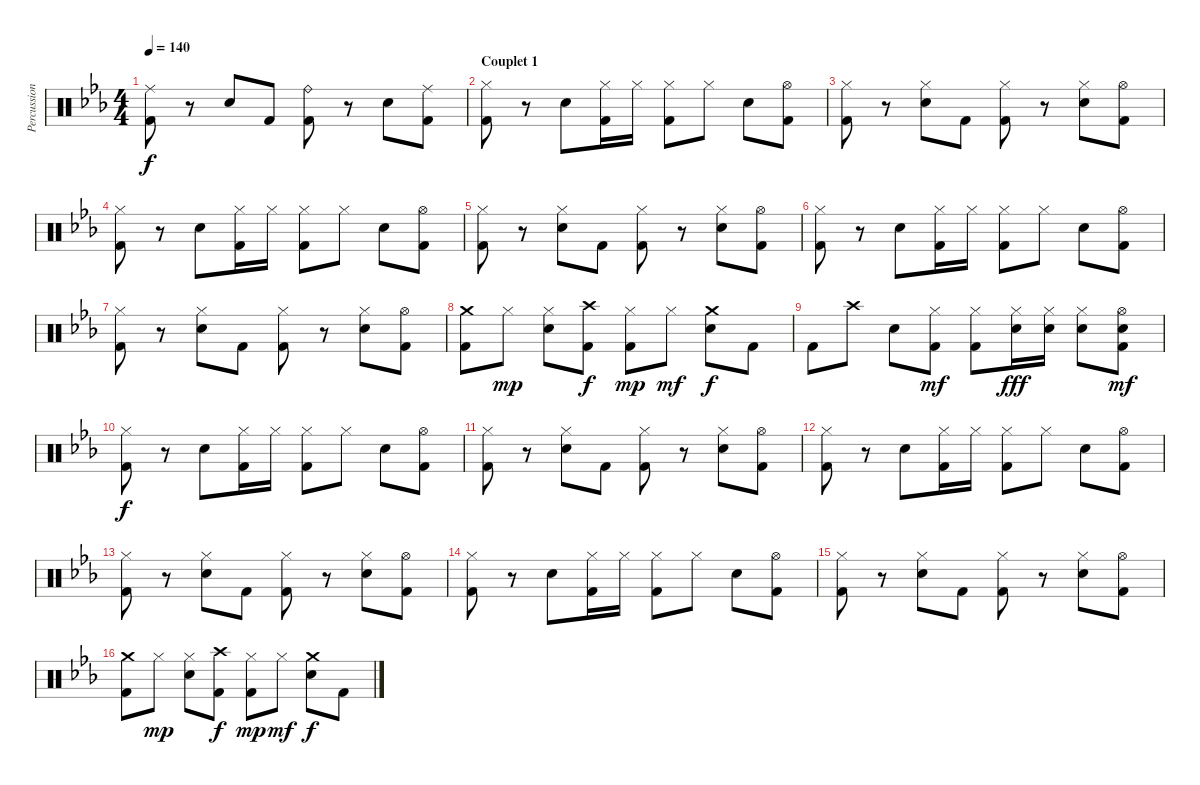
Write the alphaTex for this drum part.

\track ("Percussions" "Percussion") {instrument percussion}
\staff {score}
\articulation defaults
\ts (4 4)
\tempo 140
\clef neutral
\ks eb
("Ride (middle)" "Kick (hit) 2").8{dy f} r.8 "Snare (hit) 2".8 "Kick (hit) 2".8 ("Ride (bell)" "Kick (hit) 2").8 r.8 "Snare (hit) 2".8 ("Ride (middle)" "Kick (hit) 2").8 |
\section ("" "Couplet 1")
("Hi-Hat (closed)" "Kick (hit) 2").8 r.8 "Snare (hit) 2".8 ("Hi-Hat (closed)" "Kick (hit) 2").16 "Hi-Hat (closed)".16 ("Hi-Hat (closed)" "Kick (hit) 2").8 "Hi-Hat (closed)".8 "Snare (hit) 2".8 ("Hi-Hat (open)" "Kick (hit) 2").8 |
("Hi-Hat (closed)" "Kick (hit) 2").8 r.8 ("Hi-Hat (closed)" "Snare (hit) 2").8 "Kick (hit) 2".8 ("Hi-Hat (closed)" "Kick (hit) 2").8 r.8 ("Hi-Hat (closed)" "Snare (hit) 2").8 ("Hi-Hat (open)" "Kick (hit) 2").8 |
("Hi-Hat (closed)" "Kick (hit) 2").8 r.8 "Snare (hit) 2".8 ("Hi-Hat (closed)" "Kick (hit) 2").16 "Hi-Hat (closed)".16 ("Hi-Hat (closed)" "Kick (hit) 2").8 "Hi-Hat (closed)".8 "Snare (hit) 2".8 ("Hi-Hat (open)" "Kick (hit) 2").8 |
("Hi-Hat (closed)" "Kick (hit) 2").8 r.8 ("Hi-Hat (closed)" "Snare (hit) 2").8 "Kick (hit) 2".8 ("Hi-Hat (closed)" "Kick (hit) 2").8 r.8 ("Hi-Hat (closed)" "Snare (hit) 2").8 ("Hi-Hat (open)" "Kick (hit) 2").8 |
("Hi-Hat (closed)" "Kick (hit) 2").8 r.8 "Snare (hit) 2".8 ("Hi-Hat (closed)" "Kick (hit) 2").16 "Hi-Hat (closed)".16 ("Hi-Hat (closed)" "Kick (hit) 2").8 "Hi-Hat (closed)".8 "Snare (hit) 2".8 ("Hi-Hat (open)" "Kick (hit) 2").8 |
("Hi-Hat (closed)" "Kick (hit) 2").8 r.8 ("Hi-Hat (closed)" "Snare (hit) 2").8 "Kick (hit) 2".8 ("Hi-Hat (closed)" "Kick (hit) 2").8 r.8 ("Hi-Hat (closed)" "Snare (hit) 2").8 ("Hi-Hat (open)" "Kick (hit) 2").8 |
("Crash medium (hit)" "Kick (hit) 2").8 "Hi-Hat (closed)".8{dy mp} ("Hi-Hat (closed)" "Snare (hit) 2").8 ("Crash high (hit)" "Kick (hit) 2").8{dy f} ("Hi-Hat (closed)" "Kick (hit) 2").8{dy mp} "Hi-Hat (closed)".8{dy mf} ("Crash medium (hit)" "Snare (hit) 2").8{dy f} "Kick (hit) 2".8 |
"Kick (hit) 2".8 "Crash high (hit)".8 "Snare (hit) 2".8 ("Hi-Hat (closed)" "Kick (hit) 2").8{dy mf} ("Hi-Hat (closed)" "Kick (hit) 2").8 ("Hi-Hat (closed)" "Snare (hit) 2").16{dy fff} ("Hi-Hat (closed)" "Snare (hit) 2").16 ("Hi-Hat (closed)" "Snare (hit) 2").8 ("Hi-Hat (open)" "Snare (hit) 2" "Kick (hit) 2").8{dy mf} |
("Hi-Hat (closed)" "Kick (hit) 2").8{dy f} r.8 "Snare (hit) 2".8 ("Hi-Hat (closed)" "Kick (hit) 2").16 "Hi-Hat (closed)".16 ("Hi-Hat (closed)" "Kick (hit) 2").8 "Hi-Hat (closed)".8 "Snare (hit) 2".8 ("Hi-Hat (open)" "Kick (hit) 2").8 |
("Hi-Hat (closed)" "Kick (hit) 2").8 r.8 ("Hi-Hat (closed)" "Snare (hit) 2").8 "Kick (hit) 2".8 ("Hi-Hat (closed)" "Kick (hit) 2").8 r.8 ("Hi-Hat (closed)" "Snare (hit) 2").8 ("Hi-Hat (open)" "Kick (hit) 2").8 |
("Hi-Hat (closed)" "Kick (hit) 2").8 r.8 "Snare (hit) 2".8 ("Hi-Hat (closed)" "Kick (hit) 2").16 "Hi-Hat (closed)".16 ("Hi-Hat (closed)" "Kick (hit) 2").8 "Hi-Hat (closed)".8 "Snare (hit) 2".8 ("Hi-Hat (open)" "Kick (hit) 2").8 |
("Hi-Hat (closed)" "Kick (hit) 2").8 r.8 ("Hi-Hat (closed)" "Snare (hit) 2").8 "Kick (hit) 2".8 ("Hi-Hat (closed)" "Kick (hit) 2").8 r.8 ("Hi-Hat (closed)" "Snare (hit) 2").8 ("Hi-Hat (open)" "Kick (hit) 2").8 |
("Hi-Hat (closed)" "Kick (hit) 2").8 r.8 "Snare (hit) 2".8 ("Hi-Hat (closed)" "Kick (hit) 2").16 "Hi-Hat (closed)".16 ("Hi-Hat (closed)" "Kick (hit) 2").8 "Hi-Hat (closed)".8 "Snare (hit) 2".8 ("Hi-Hat (open)" "Kick (hit) 2").8 |
("Hi-Hat (closed)" "Kick (hit) 2").8 r.8 ("Hi-Hat (closed)" "Snare (hit) 2").8 "Kick (hit) 2".8 ("Hi-Hat (closed)" "Kick (hit) 2").8 r.8 ("Hi-Hat (closed)" "Snare (hit) 2").8 ("Hi-Hat (open)" "Kick (hit) 2").8 |
("Crash medium (hit)" "Kick (hit) 2").8 "Hi-Hat (closed)".8{dy mp} ("Hi-Hat (closed)" "Snare (hit) 2").8 ("Crash high (hit)" "Kick (hit) 2").8{dy f} ("Hi-Hat (closed)" "Kick (hit) 2").8{dy mp} "Hi-Hat (closed)".8{dy mf} ("Crash medium (hit)" "Snare (hit) 2").8{dy f} "Kick (hit) 2".8
